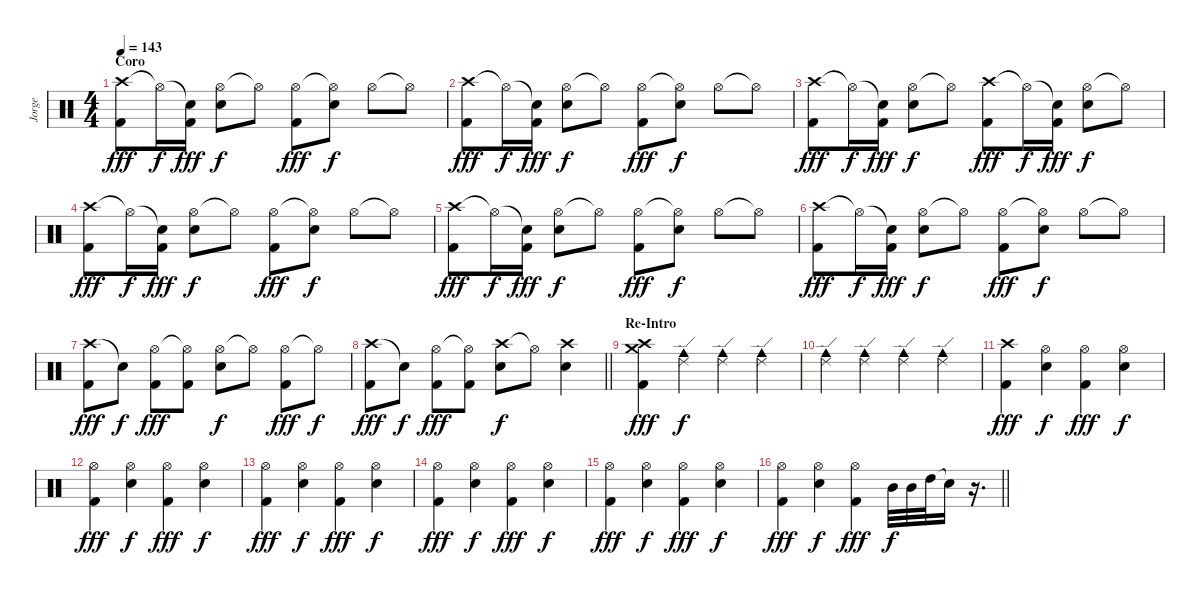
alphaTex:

\track ("Jorge" "Jorge") {instrument percussion}
\staff {score}
\articulation defaults
\ts (4 4)
\section ("" "Coro")
\tempo 143
\clef neutral
\ks c
("Crash high (hit)" "Kick (hit) 2").8{dy fff} "Hi-Hat (open)"{t}.16{dy f} ("Snare (hit)"{t} "Kick (hit) 2").16{dy fff} ("Hi-Hat (open)" "Electric Snare (hit)").8{dy f} "Hi-Hat (open)"{t}.8 ("Hi-Hat (open)" "Kick (hit) 2").8{dy fff} ("Hi-Hat (open)"{t} "Electric Snare (hit)").8{dy f} "Hi-Hat (open)".8 "Hi-Hat (open)"{t}.8 |
("Crash high (hit)" "Kick (hit) 2").8{dy fff} "Hi-Hat (open)"{t}.16{dy f} ("Snare (hit)"{t} "Kick (hit) 2").16{dy fff} ("Hi-Hat (open)" "Electric Snare (hit)").8{dy f} "Hi-Hat (open)"{t}.8 ("Hi-Hat (open)" "Kick (hit) 2").8{dy fff} ("Hi-Hat (open)"{t} "Electric Snare (hit)").8{dy f} "Hi-Hat (open)".8 "Hi-Hat (open)"{t}.8 |
("Crash high (hit)" "Kick (hit) 2").8{dy fff} "Hi-Hat (open)"{t}.16{dy f} ("Snare (hit)"{t} "Kick (hit) 2").16{dy fff} ("Hi-Hat (open)" "Electric Snare (hit)").8{dy f} "Hi-Hat (open)"{t}.8 ("Crash high (hit)" "Kick (hit) 2").8{dy fff} "Hi-Hat (open)"{t}.16{dy f} ("Snare (hit)"{t} "Kick (hit) 2").16{dy fff} ("Hi-Hat (open)" "Electric Snare (hit)").8{dy f} "Hi-Hat (open)"{t}.8 |
("Crash high (hit)" "Kick (hit) 2").8{dy fff} "Hi-Hat (open)"{t}.16{dy f} ("Snare (hit)"{t} "Kick (hit) 2").16{dy fff} ("Hi-Hat (open)" "Electric Snare (hit)").8{dy f} "Hi-Hat (open)"{t}.8 ("Hi-Hat (open)" "Kick (hit) 2").8{dy fff} ("Hi-Hat (open)"{t} "Electric Snare (hit)").8{dy f} "Hi-Hat (open)".8 "Hi-Hat (open)"{t}.8 |
("Crash high (hit)" "Kick (hit) 2").8{dy fff} "Hi-Hat (open)"{t}.16{dy f} ("Snare (hit)"{t} "Kick (hit) 2").16{dy fff} ("Hi-Hat (open)" "Electric Snare (hit)").8{dy f} "Hi-Hat (open)"{t}.8 ("Hi-Hat (open)" "Kick (hit) 2").8{dy fff} ("Hi-Hat (open)"{t} "Electric Snare (hit)").8{dy f} "Hi-Hat (open)".8 "Hi-Hat (open)"{t}.8 |
("Crash high (hit)" "Kick (hit) 2").8{dy fff} "Hi-Hat (open)"{t}.16{dy f} ("Snare (hit)"{t} "Kick (hit) 2").16{dy fff} ("Hi-Hat (open)" "Electric Snare (hit)").8{dy f} "Hi-Hat (open)"{t}.8 ("Hi-Hat (open)" "Kick (hit) 2").8{dy fff} ("Hi-Hat (open)"{t} "Electric Snare (hit)").8{dy f} "Hi-Hat (open)".8 "Hi-Hat (open)"{t}.8 |
("Crash high (hit)" "Kick (hit) 2").8{dy fff} "Snare (hit)"{t}.8{dy f} ("Hi-Hat (open)" "Kick (hit) 2").8{dy fff} ("Hi-Hat (open)"{t} "Kick (hit) 2").8 ("Hi-Hat (open)" "Electric Snare (hit)").8{dy f} "Hi-Hat (open)"{t}.8 ("Hi-Hat (open)" "Kick (hit) 2").8{dy fff} "Hi-Hat (open)"{t}.8{dy f} |
\barLineRight lightlight
("Crash high (hit)" "Kick (hit) 2").8{dy fff} "Snare (hit)"{t}.8{dy f} ("Hi-Hat (open)" "Kick (hit) 2").8{dy fff} ("Hi-Hat (open)"{t} "Kick (hit) 2").8 ("Crash high (hit)" "Electric Snare (hit)").8{dy f} "Hi-Hat (open)"{t}.8 ("Crash high (hit)" "Electric Snare (hit)").4 |
\section ("" "Re-Intro")
("Crash high (hit)" "Crash medium (hit)" "Kick (hit) 2").4{dy fff} ("Ride (edge) 2" "Cowbell medium (hit)").4{dy f} ("Ride (edge) 2" "Cowbell medium (hit)").4 ("Ride (edge) 2" "Cowbell medium (hit)").4 |
("Ride (edge) 2" "Cowbell medium (hit)").4 ("Ride (edge) 2" "Cowbell medium (hit)").4 ("Ride (edge) 2" "Cowbell medium (hit)").4 ("Ride (edge) 2" "Cowbell medium (hit)").4 |
("Crash high (hit)" "Kick (hit) 2").4{dy fff} ("Hi-Hat (open)" "Electric Snare (hit)").4{dy f} ("Hi-Hat (open)" "Kick (hit) 2").4{dy fff} ("Hi-Hat (open)" "Electric Snare (hit)").4{dy f} |
("Hi-Hat (open)" "Kick (hit) 2").4{dy fff} ("Hi-Hat (open)" "Electric Snare (hit)").4{dy f} ("Hi-Hat (open)" "Kick (hit) 2").4{dy fff} ("Hi-Hat (open)" "Electric Snare (hit)").4{dy f} |
("Hi-Hat (open)" "Kick (hit) 2").4{dy fff} ("Hi-Hat (open)" "Electric Snare (hit)").4{dy f} ("Hi-Hat (open)" "Kick (hit) 2").4{dy fff} ("Hi-Hat (open)" "Electric Snare (hit)").4{dy f} |
("Hi-Hat (open)" "Kick (hit) 2").4{dy fff} ("Hi-Hat (open)" "Electric Snare (hit)").4{dy f} ("Hi-Hat (open)" "Kick (hit) 2").4{dy fff} ("Hi-Hat (open)" "Electric Snare (hit)").4{dy f} |
("Hi-Hat (open)" "Kick (hit) 2").4{dy fff} ("Hi-Hat (open)" "Electric Snare (hit)").4{dy f} ("Hi-Hat (open)" "Kick (hit) 2").4{dy fff} ("Hi-Hat (open)" "Electric Snare (hit)").4{dy f} |
\barLineRight lightlight
("Hi-Hat (open)" "Kick (hit) 2").4{dy fff} ("Hi-Hat (open)" "Electric Snare (hit)").4{dy f} ("Hi-Hat (open)" "Kick (hit) 2").4{dy fff} "Mid Tom (hit)".32{dy f} "Mid Tom (hit)".32 "High Tom (hit)".32 "Snare (hit)"{t}.16 r.16{d}
